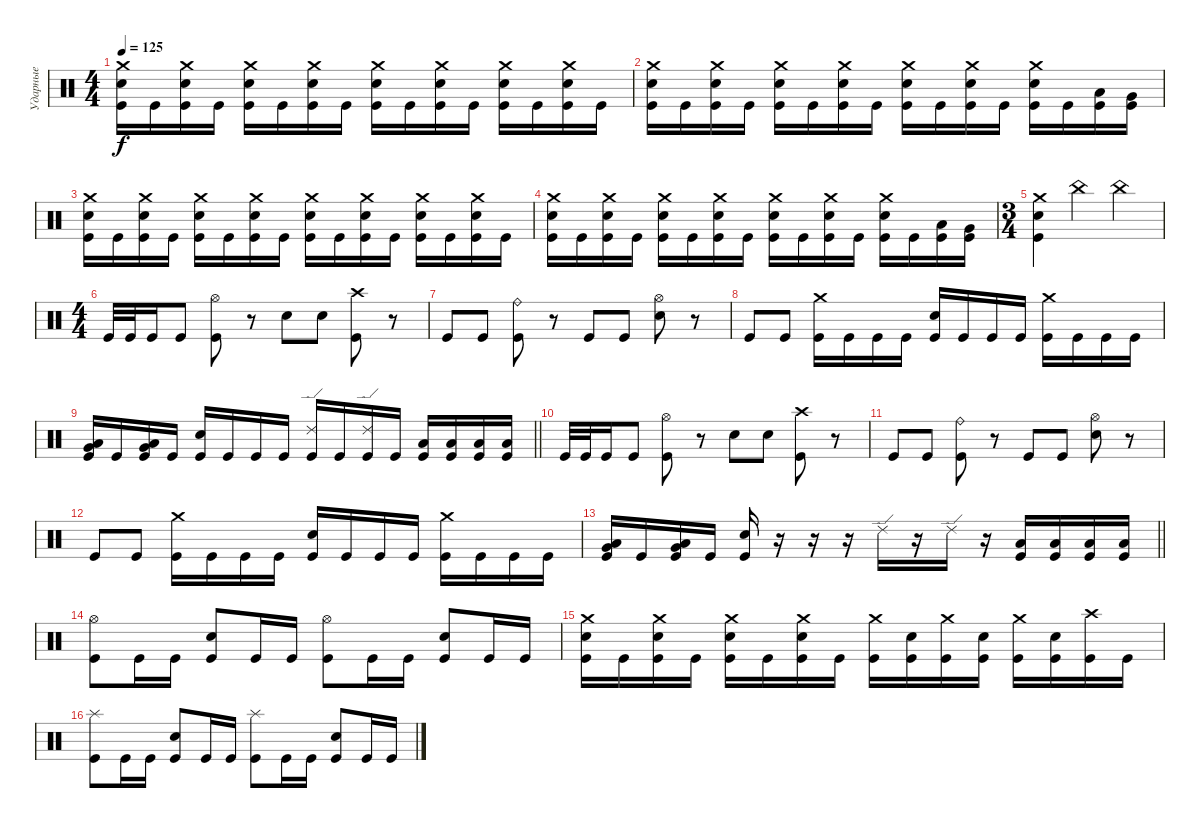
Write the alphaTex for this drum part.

\track ("Ударные" "Ударные") {instrument percussion}
\staff {score}
\articulation defaults
\ts (4 4)
\tempo 125
\clef neutral
\ks c
("Crash medium (hit)" "Kick (hit)" "Electric Snare (hit)").16{dy f} "Kick (hit)".16 ("Crash medium (hit)" "Kick (hit)" "Electric Snare (hit)").16 "Kick (hit)".16 ("Crash medium (hit)" "Kick (hit)" "Electric Snare (hit)").16 "Kick (hit)".16 ("Crash medium (hit)" "Kick (hit)" "Electric Snare (hit)").16 "Kick (hit)".16 ("Crash medium (hit)" "Kick (hit)" "Electric Snare (hit)").16 "Kick (hit)".16 ("Crash medium (hit)" "Kick (hit)" "Electric Snare (hit)").16 "Kick (hit)".16 ("Crash medium (hit)" "Kick (hit)" "Electric Snare (hit)").16 "Kick (hit)".16 ("Crash medium (hit)" "Kick (hit)" "Electric Snare (hit)").16 "Kick (hit)".16 |
("Crash medium (hit)" "Kick (hit)" "Electric Snare (hit)").16 "Kick (hit)".16 ("Crash medium (hit)" "Kick (hit)" "Electric Snare (hit)").16 "Kick (hit)".16 ("Crash medium (hit)" "Kick (hit)" "Electric Snare (hit)").16 "Kick (hit)".16 ("Crash medium (hit)" "Kick (hit)" "Electric Snare (hit)").16 "Kick (hit)".16 ("Crash medium (hit)" "Kick (hit)" "Electric Snare (hit)").16 "Kick (hit)".16 ("Crash medium (hit)" "Kick (hit)" "Electric Snare (hit)").16 "Kick (hit)".16 ("Crash medium (hit)" "Kick (hit)" "Electric Snare (hit)").16 "Kick (hit)".16 ("Low Tom (hit)" "Kick (hit)").16 ("Very Low Tom (hit)" "Kick (hit)").16 |
("Crash medium (hit)" "Kick (hit)" "Electric Snare (hit)").16 "Kick (hit)".16 ("Crash medium (hit)" "Kick (hit)" "Electric Snare (hit)").16 "Kick (hit)".16 ("Crash medium (hit)" "Kick (hit)" "Electric Snare (hit)").16 "Kick (hit)".16 ("Crash medium (hit)" "Kick (hit)" "Electric Snare (hit)").16 "Kick (hit)".16 ("Crash medium (hit)" "Kick (hit)" "Electric Snare (hit)").16 "Kick (hit)".16 ("Crash medium (hit)" "Kick (hit)" "Electric Snare (hit)").16 "Kick (hit)".16 ("Crash medium (hit)" "Kick (hit)" "Electric Snare (hit)").16 "Kick (hit)".16 ("Crash medium (hit)" "Kick (hit)" "Electric Snare (hit)").16 "Kick (hit)".16 |
("Crash medium (hit)" "Kick (hit)" "Electric Snare (hit)").16 "Kick (hit)".16 ("Crash medium (hit)" "Kick (hit)" "Electric Snare (hit)").16 "Kick (hit)".16 ("Crash medium (hit)" "Kick (hit)" "Electric Snare (hit)").16 "Kick (hit)".16 ("Crash medium (hit)" "Kick (hit)" "Electric Snare (hit)").16 "Kick (hit)".16 ("Crash medium (hit)" "Kick (hit)" "Electric Snare (hit)").16 "Kick (hit)".16 ("Crash medium (hit)" "Kick (hit)" "Electric Snare (hit)").16 "Kick (hit)".16 ("Crash medium (hit)" "Kick (hit)" "Electric Snare (hit)").16 "Kick (hit)".16 ("Low Tom (hit)" "Kick (hit)").16 ("Very Low Tom (hit)" "Kick (hit)").16 |
\ts (3 4)
("Crash medium (hit)" "Kick (hit)" "Electric Snare (hit)").4 "China (hit)".4 "China (hit)".4 |
\ts (4 4)
"Kick (hit)".32 "Kick (hit)".32 "Kick (hit)".16 "Kick (hit)".8 ("Hi-Hat (open)" "Kick (hit)").8 r.8 "Electric Snare (hit)".8 "Electric Snare (hit)".8 ("Crash high (hit)" "Kick (hit)").8 r.8 |
"Kick (hit)".8 "Kick (hit)".8 ("Ride (bell)" "Kick (hit)").8 r.8 "Kick (hit)".8 "Kick (hit)".8 ("Electric Snare (hit)" "Hi-Hat (open)").8 r.8 |
"Kick (hit)".8 "Kick (hit)".8 ("Crash medium (hit)" "Kick (hit)").16 "Kick (hit)".16 "Kick (hit)".16 "Kick (hit)".16 ("Electric Snare (hit)" "Kick (hit)").16 "Kick (hit)".16 "Kick (hit)".16 "Kick (hit)".16 ("Crash medium (hit)" "Kick (hit)").16 "Kick (hit)".16 "Kick (hit)".16 "Kick (hit)".16 |
\barLineRight lightlight
("Low Floor Tom (hit)" "Very Low Tom (hit)" "Kick (hit)").16 "Kick (hit)".16 ("Low Floor Tom (hit)" "Very Low Tom (hit)" "Kick (hit)").16 "Kick (hit)".16 ("Electric Snare (hit)" "Kick (hit)").16 "Kick (hit)".16 "Kick (hit)".16 "Kick (hit)".16 ("Ride (edge) 2" "Kick (hit)").16 "Kick (hit)".16 ("Ride (edge) 2" "Kick (hit)").16 "Kick (hit)".16 ("Low Floor Tom (hit)" "Kick (hit)").16 ("Low Floor Tom (hit)" "Kick (hit)").16 ("Low Tom (hit)" "Kick (hit)").16 ("Low Tom (hit)" "Kick (hit)").16 |
"Kick (hit)".32 "Kick (hit)".32 "Kick (hit)".16 "Kick (hit)".8 ("Hi-Hat (open)" "Kick (hit)").8 r.8 "Electric Snare (hit)".8 "Electric Snare (hit)".8 ("Crash high (hit)" "Kick (hit)").8 r.8 |
"Kick (hit)".8 "Kick (hit)".8 ("Ride (bell)" "Kick (hit)").8 r.8 "Kick (hit)".8 "Kick (hit)".8 ("Electric Snare (hit)" "Hi-Hat (open)").8 r.8 |
"Kick (hit)".8 "Kick (hit)".8 ("Crash medium (hit)" "Kick (hit)").16 "Kick (hit)".16 "Kick (hit)".16 "Kick (hit)".16 ("Electric Snare (hit)" "Kick (hit)").16 "Kick (hit)".16 "Kick (hit)".16 "Kick (hit)".16 ("Crash medium (hit)" "Kick (hit)").16 "Kick (hit)".16 "Kick (hit)".16 "Kick (hit)".16 |
\barLineRight lightlight
("Low Floor Tom (hit)" "Very Low Tom (hit)" "Kick (hit)").16 "Kick (hit)".16 ("Low Floor Tom (hit)" "Very Low Tom (hit)" "Kick (hit)").16 "Kick (hit)".16 ("Electric Snare (hit)" "Kick (hit)").16 r.16 r.16 r.16 "Ride (edge) 2".16 r.16 "Ride (edge) 2".16 r.16 ("Low Floor Tom (hit)" "Kick (hit)").16 ("Low Floor Tom (hit)" "Kick (hit)").16 ("Low Tom (hit)" "Kick (hit)").16 ("Low Tom (hit)" "Kick (hit)").16 |
\section ("" " ")
("Hi-Hat (open)" "Kick (hit)").8 "Kick (hit)".16 "Kick (hit)".16 ("Electric Snare (hit)" "Kick (hit)").8 "Kick (hit)".16 "Kick (hit)".16 ("Hi-Hat (open)" "Kick (hit)").8 "Kick (hit)".16 "Kick (hit)".16 ("Electric Snare (hit)" "Kick (hit)").8 "Kick (hit)".16 "Kick (hit)".16 |
("Crash medium (hit)" "Kick (hit)" "Electric Snare (hit)").16 "Kick (hit)".16 ("Crash medium (hit)" "Kick (hit)" "Electric Snare (hit)").16 "Kick (hit)".16 ("Crash medium (hit)" "Kick (hit)" "Electric Snare (hit)").16 "Kick (hit)".16 ("Crash medium (hit)" "Kick (hit)" "Electric Snare (hit)").16 "Kick (hit)".16 ("Crash medium (hit)" "Kick (hit)").16 ("Electric Snare (hit)" "Kick (hit)").16 ("Crash medium (hit)" "Kick (hit)").16 ("Electric Snare (hit)" "Kick (hit)").16 ("Crash medium (hit)" "Kick (hit)").16 ("Electric Snare (hit)" "Kick (hit)").16 ("Crash high (hit)" "Kick (hit)").16 "Kick (hit)".16 |
("Splash (hit)" "Kick (hit)").8 "Kick (hit)".16 "Kick (hit)".16 ("Electric Snare (hit)" "Kick (hit)").8 "Kick (hit)".16 "Kick (hit)".16 ("Splash (hit)" "Kick (hit)").8 "Kick (hit)".16 "Kick (hit)".16 ("Electric Snare (hit)" "Kick (hit)").8 "Kick (hit)".16 "Kick (hit)".16
